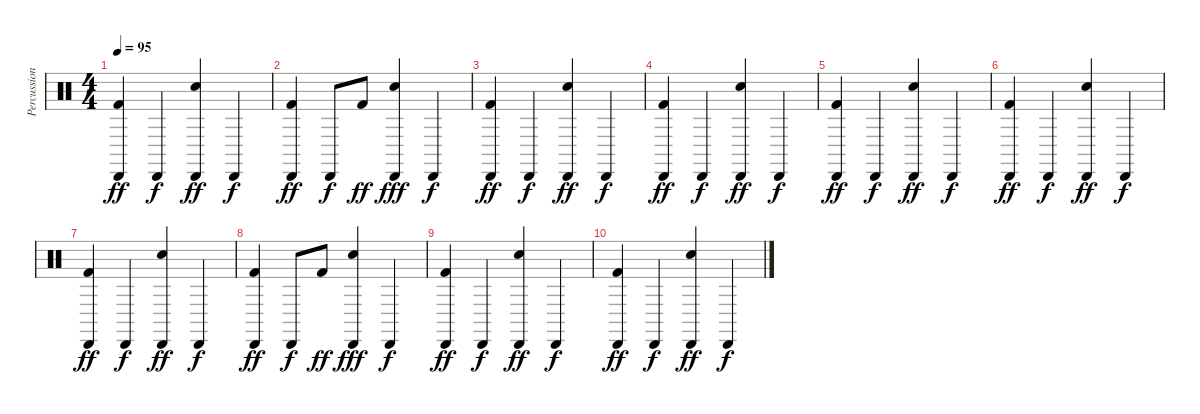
\track ("Percussions" "Percussion") {instrument percussion}
\staff {score}
\articulation defaults
\ts (4 4)
\tempo 95
\clef neutral
\ks c
("Kick (hit) 2" "Cabasa (hit)").4{dy ff} "Cabasa (hit)".4{dy f} ("Snare (hit) 2" "Cabasa (hit)").4{dy ff} "Cabasa (hit)".4{dy f} |
("Kick (hit) 2" "Cabasa (hit)").4{dy ff} "Cabasa (hit)".8{dy f} "Kick (hit) 2".8{dy ff} ("Snare (hit) 2" "Cabasa (hit)").4{dy fff} "Cabasa (hit)".4{dy f} |
("Kick (hit) 2" "Cabasa (hit)").4{dy ff} "Cabasa (hit)".4{dy f} ("Snare (hit) 2" "Cabasa (hit)").4{dy ff} "Cabasa (hit)".4{dy f} |
("Kick (hit) 2" "Cabasa (hit)").4{dy ff} "Cabasa (hit)".4{dy f} ("Snare (hit) 2" "Cabasa (hit)").4{dy ff} "Cabasa (hit)".4{dy f} |
("Kick (hit) 2" "Cabasa (hit)").4{dy ff} "Cabasa (hit)".4{dy f} ("Snare (hit) 2" "Cabasa (hit)").4{dy ff} "Cabasa (hit)".4{dy f} |
("Kick (hit) 2" "Cabasa (hit)").4{dy ff} "Cabasa (hit)".4{dy f} ("Snare (hit) 2" "Cabasa (hit)").4{dy ff} "Cabasa (hit)".4{dy f} |
("Kick (hit) 2" "Cabasa (hit)").4{dy ff} "Cabasa (hit)".4{dy f} ("Snare (hit) 2" "Cabasa (hit)").4{dy ff} "Cabasa (hit)".4{dy f} |
("Kick (hit) 2" "Cabasa (hit)").4{dy ff} "Cabasa (hit)".8{dy f} "Kick (hit) 2".8{dy ff} ("Snare (hit) 2" "Cabasa (hit)").4{dy fff} "Cabasa (hit)".4{dy f} |
("Kick (hit) 2" "Cabasa (hit)").4{dy ff} "Cabasa (hit)".4{dy f} ("Snare (hit) 2" "Cabasa (hit)").4{dy ff} "Cabasa (hit)".4{dy f} |
("Kick (hit) 2" "Cabasa (hit)").4{dy ff} "Cabasa (hit)".4{dy f} ("Snare (hit) 2" "Cabasa (hit)").4{dy ff} "Cabasa (hit)".4{dy f}
